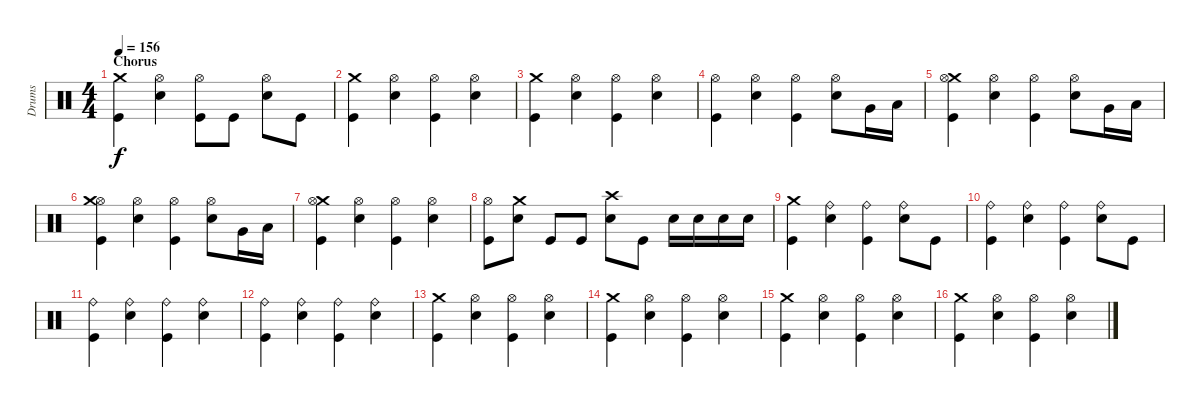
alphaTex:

\track ("Drums" "Drums") {instrument percussion}
\staff {score}
\articulation defaults
\ts (4 4)
\section ("" "Chorus")
\tempo 156
\clef neutral
\ks c
("Kick (hit)" "Crash medium (hit)").4{dy f} ("Hi-Hat (open)" "Electric Snare (hit)").4 ("Hi-Hat (open)" "Kick (hit)").8 "Kick (hit)".8 ("Hi-Hat (open)" "Electric Snare (hit)").8 "Kick (hit)".8 |
("Kick (hit)" "Crash medium (hit)").4 ("Hi-Hat (open)" "Electric Snare (hit)").4 ("Hi-Hat (open)" "Kick (hit)").4 ("Electric Snare (hit)" "Hi-Hat (open)").4 |
("Kick (hit)" "Crash medium (hit)").4 ("Hi-Hat (open)" "Electric Snare (hit)").4 ("Kick (hit)" "Hi-Hat (open)").4 ("Hi-Hat (open)" "Electric Snare (hit)").4 |
("Hi-Hat (open)" "Kick (hit)").4 ("Electric Snare (hit)" "Hi-Hat (open)").4 ("Kick (hit)" "Hi-Hat (open)").4 ("Hi-Hat (open)" "Electric Snare (hit)").8 "Very Low Tom (hit)".16 "Low Floor Tom (hit)".16 |
("Kick (hit)" "Crash medium (hit)" "Hi-Hat (open)").4 ("Hi-Hat (open)" "Electric Snare (hit)").4 ("Kick (hit)" "Hi-Hat (open)").4 ("Hi-Hat (open)" "Electric Snare (hit)").8 "Very Low Tom (hit)".16 "Low Floor Tom (hit)".16 |
("Hi-Hat (open)" "Crash medium (hit)" "Kick (hit)").4 ("Electric Snare (hit)" "Hi-Hat (open)").4 ("Kick (hit)" "Hi-Hat (open)").4 ("Hi-Hat (open)" "Electric Snare (hit)").8 "Very Low Tom (hit)".16 "Low Floor Tom (hit)".16 |
("Crash medium (hit)" "Hi-Hat (open)" "Kick (hit)").4 ("Hi-Hat (open)" "Electric Snare (hit)").4 ("Kick (hit)" "Hi-Hat (open)").4 ("Hi-Hat (open)" "Electric Snare (hit)").4 |
("Kick (hit)" "Hi-Hat (open)").8 ("Crash medium (hit)" "Electric Snare (hit)").8 "Kick (hit)".8 "Kick (hit)".8 ("Crash high (hit)" "Electric Snare (hit)").8 "Kick (hit)".8 "Electric Snare (hit)".16 "Electric Snare (hit)".16 "Electric Snare (hit)".16 "Electric Snare (hit)".16 |
("Crash medium (hit)" "Kick (hit)").4 ("Ride (bell)" "Electric Snare (hit)").4 ("Ride (bell)" "Kick (hit)").4 ("Electric Snare (hit)" "Ride (bell)").8 "Kick (hit)".8 |
("Ride (bell)" "Kick (hit)").4 ("Ride (bell)" "Electric Snare (hit)").4 ("Ride (bell)" "Kick (hit)").4 ("Electric Snare (hit)" "Ride (bell)").8 "Kick (hit)".8 |
("Ride (bell)" "Kick (hit)").4 ("Ride (bell)" "Electric Snare (hit)").4 ("Ride (bell)" "Kick (hit)").4 ("Electric Snare (hit)" "Ride (bell)").4 |
("Ride (bell)" "Kick (hit)").4 ("Ride (bell)" "Electric Snare (hit)").4 ("Ride (bell)" "Kick (hit)").4 ("Ride (bell)" "Electric Snare (hit)").4 |
("Crash medium (hit)" "Kick (hit)").4 ("Electric Snare (hit)" "Hi-Hat (open)").4 ("Kick (hit)" "Hi-Hat (open)").4 ("Electric Snare (hit)" "Hi-Hat (open)").4 |
("Kick (hit)" "Crash medium (hit)").4 ("Electric Snare (hit)" "Hi-Hat (open)").4 ("Kick (hit)" "Hi-Hat (open)").4 ("Electric Snare (hit)" "Hi-Hat (open)").4 |
("Kick (hit)" "Crash medium (hit)").4 ("Electric Snare (hit)" "Hi-Hat (open)").4 ("Kick (hit)" "Hi-Hat (open)").4 ("Electric Snare (hit)" "Hi-Hat (open)").4 |
("Kick (hit)" "Crash medium (hit)").4 ("Electric Snare (hit)" "Hi-Hat (open)").4 ("Kick (hit)" "Hi-Hat (open)").4 ("Electric Snare (hit)" "Hi-Hat (open)").4
